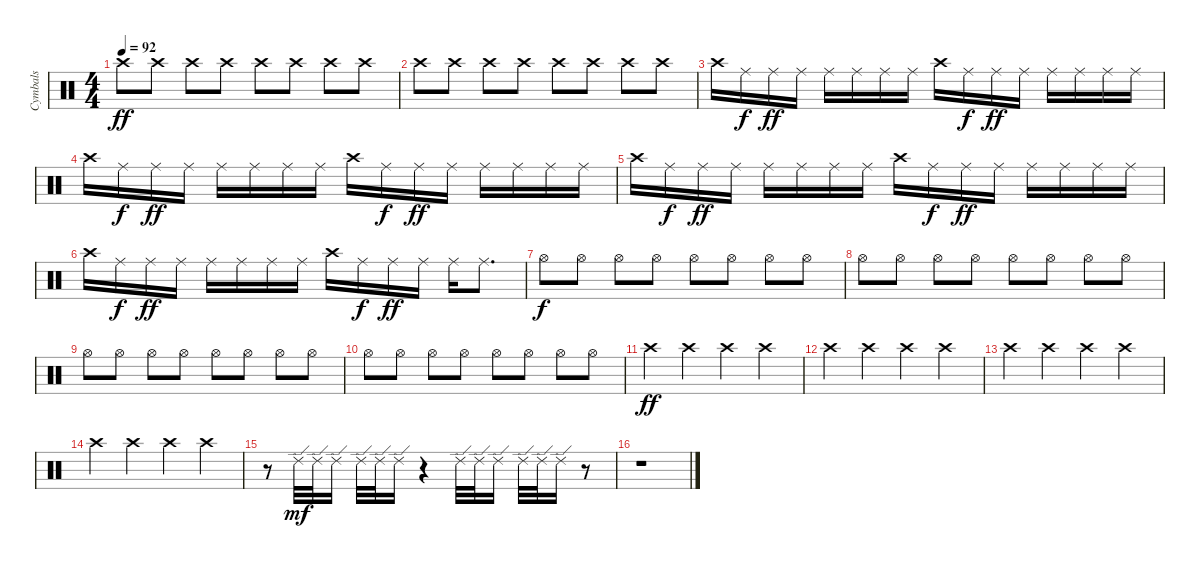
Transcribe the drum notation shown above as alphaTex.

\track ("Cymbals" "Cymbals") {instrument percussion}
\staff {score}
\articulation defaults
\ts (4 4)
\tempo 92
\clef neutral
\ks c "Crash high (hit)".8{dy ff} "Crash high (hit)".8 "Crash high (hit)".8 "Crash high (hit)".8 "Crash high (hit)".8 "Crash high (hit)".8 "Crash high (hit)".8 "Crash high (hit)".8
|
"Crash high (hit)".8 "Crash high (hit)".8 "Crash high (hit)".8 "Crash high (hit)".8 "Crash high (hit)".8 "Crash high (hit)".8 "Crash high (hit)".8 "Crash high (hit)".8 |
"Crash high (hit)".16 "Ride (middle)".16{dy f} "Ride (middle)".16{dy ff} "Ride (middle)".16 "Ride (middle)".16 "Ride (middle)".16 "Ride (middle)".16 "Ride (middle)".16 "Crash high (hit)".16 "Ride (middle)".16{dy f} "Ride (middle)".16{dy ff} "Ride (middle)".16 "Ride (middle)".16 "Ride (middle)".16 "Ride (middle)".16 "Ride (middle)".16 |
"Crash high (hit)".16 "Ride (middle)".16{dy f} "Ride (middle)".16{dy ff} "Ride (middle)".16 "Ride (middle)".16 "Ride (middle)".16 "Ride (middle)".16 "Ride (middle)".16 "Crash high (hit)".16 "Ride (middle)".16{dy f} "Ride (middle)".16{dy ff} "Ride (middle)".16 "Ride (middle)".16 "Ride (middle)".16 "Ride (middle)".16 "Ride (middle)".16 |
"Crash high (hit)".16 "Ride (middle)".16{dy f} "Ride (middle)".16{dy ff} "Ride (middle)".16 "Ride (middle)".16 "Ride (middle)".16 "Ride (middle)".16 "Ride (middle)".16 "Crash high (hit)".16 "Ride (middle)".16{dy f} "Ride (middle)".16{dy ff} "Ride (middle)".16 "Ride (middle)".16 "Ride (middle)".16 "Ride (middle)".16 "Ride (middle)".16 |
"Crash high (hit)".16 "Ride (middle)".16{dy f} "Ride (middle)".16{dy ff} "Ride (middle)".16 "Ride (middle)".16 "Ride (middle)".16 "Ride (middle)".16 "Ride (middle)".16 "Crash high (hit)".16 "Ride (middle)".16{dy f} "Ride (middle)".16{dy ff} "Ride (middle)".16 "Ride (middle)".16 "Ride (middle)".8{d} |
"Hi-Hat (open)".8{dy f} "Hi-Hat (open)".8 "Hi-Hat (open)".8 "Hi-Hat (open)".8 "Hi-Hat (open)".8 "Hi-Hat (open)".8 "Hi-Hat (open)".8 "Hi-Hat (open)".8 |
"Hi-Hat (open)".8 "Hi-Hat (open)".8 "Hi-Hat (open)".8 "Hi-Hat (open)".8 "Hi-Hat (open)".8 "Hi-Hat (open)".8 "Hi-Hat (open)".8 "Hi-Hat (open)".8 |
"Hi-Hat (open)".8 "Hi-Hat (open)".8 "Hi-Hat (open)".8 "Hi-Hat (open)".8 "Hi-Hat (open)".8 "Hi-Hat (open)".8 "Hi-Hat (open)".8 "Hi-Hat (open)".8 |
"Hi-Hat (open)".8 "Hi-Hat (open)".8 "Hi-Hat (open)".8 "Hi-Hat (open)".8 "Hi-Hat (open)".8 "Hi-Hat (open)".8 "Hi-Hat (open)".8 "Hi-Hat (open)".8 |
"Crash high (hit)".4{dy ff} "Crash high (hit)".4 "Crash high (hit)".4 "Crash high (hit)".4 |
"Crash high (hit)".4 "Crash high (hit)".4 "Crash high (hit)".4 "Crash high (hit)".4 |
"Crash high (hit)".4 "Crash high (hit)".4 "Crash high (hit)".4 "Crash high (hit)".4 |
"Crash high (hit)".4 "Crash high (hit)".4 "Crash high (hit)".4 "Crash high (hit)".4 |
r.8 "Ride (edge) 2".32{dy mf} "Ride (edge) 2".32 "Ride (edge) 2".16 "Ride (edge) 2".32 "Ride (edge) 2".32 "Ride (edge) 2".16 r.4 "Ride (edge) 2".32 "Ride (edge) 2".32 "Ride (edge) 2".16 "Ride (edge) 2".32 "Ride (edge) 2".32 "Ride (edge) 2".16 r.8 |
r.1
